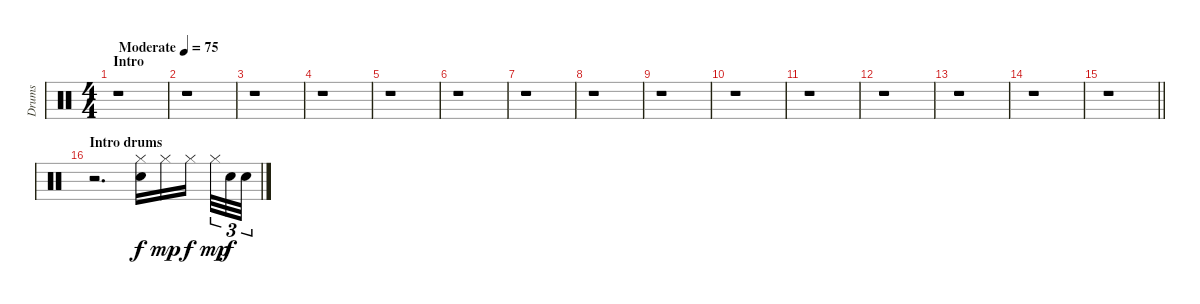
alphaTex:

\track ("Drums" "Drums") {instrument percussion}
\staff {score}
\articulation defaults
\ts (4 4)
\section ("" "Intro")
\tempo (75 "Moderate")
\clef neutral
\ks c
r.1{dy f} |
r.1 |
r.1 |
r.1 |
r.1 |
r.1 |
r.1 |
r.1 |
r.1 |
r.1 |
r.1 |
r.1 |
r.1 |
r.1 |
\barLineRight lightlight
r.1 |
\section ("" "Intro drums")
r.2{d} ("Hi-Hat (closed)" "Snare (hit) 2").16 "Hi-Hat (closed)".16{dy mp} "Hi-Hat (closed)".16{dy f beam splitsecondary} "Hi-Hat (closed)".32{tu (3 2) dy mp} "Snare (hit) 2".32{tu (3 2) dy f} "Snare (hit) 2".32{tu (3 2)}
